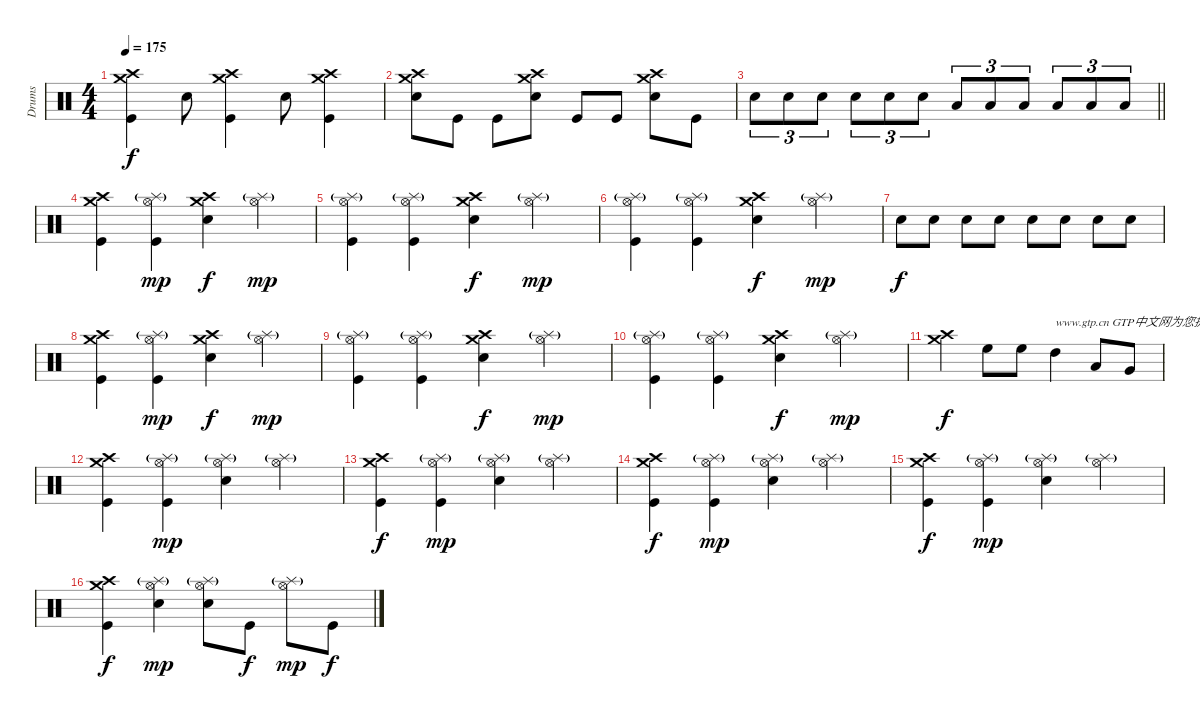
\track ("Drums" "Drums") {instrument percussion}
\staff {score}
\articulation defaults
\ts (4 4)
\tempo 175
\clef neutral
\ks c
("Crash medium (hit)" "Crash high (hit)" "Kick (hit)").4{dy f} "Electric Snare (hit)".8 ("Crash medium (hit)" "Crash high (hit)" "Kick (hit)").4 "Electric Snare (hit)".8 ("Crash medium (hit)" "Crash high (hit)" "Kick (hit)").4 |
("Crash medium (hit)" "Crash high (hit)" "Electric Snare (hit)").8 "Kick (hit)".8 "Kick (hit)".8 ("Crash medium (hit)" "Crash high (hit)" "Electric Snare (hit)").8 "Kick (hit)".8 "Kick (hit)".8 ("Crash medium (hit)" "Crash high (hit)" "Electric Snare (hit)").8 "Kick (hit)".8 |
\barLineRight lightlight "Electric Snare (hit)".8{tu (3 2)} "Electric Snare (hit)".8{tu (3 2)} "Electric Snare (hit)".8{tu (3 2)} "Electric Snare (hit)".8{tu (3 2)} "Electric Snare (hit)".8{tu (3 2)} "Electric Snare (hit)".8{tu (3 2)} "Low Tom (hit)".8{tu (3 2)} "Low Tom (hit)".8{tu (3 2)} "Low Tom (hit)".8{tu (3 2)} "Low Floor Tom (hit)".8{tu (3 2)} "Low Floor Tom (hit)".8{tu (3 2)} "Low Floor Tom (hit)".8{tu (3 2)}
|
("Crash medium (hit)" "Crash high (hit)" "Kick (hit)").4 ("Splash (hit)"{g} "Hi-Hat (open)" "Kick (hit)").4{dy mp} ("Crash medium (hit)" "Crash high (hit)" "Electric Snare (hit)").4{dy f} ("Splash (hit)"{g} "Hi-Hat (open)").4{dy mp} |
("Splash (hit)"{g} "Hi-Hat (open)" "Kick (hit)").4 ("Splash (hit)"{g} "Hi-Hat (open)" "Kick (hit)").4 ("Crash medium (hit)" "Crash high (hit)" "Electric Snare (hit)").4{dy f} ("Splash (hit)"{g} "Hi-Hat (open)").4{dy mp} |
("Splash (hit)"{g} "Hi-Hat (open)" "Kick (hit)").4 ("Splash (hit)"{g} "Hi-Hat (open)" "Kick (hit)").4 ("Crash medium (hit)" "Crash high (hit)" "Electric Snare (hit)").4{dy f} ("Splash (hit)"{g} "Hi-Hat (open)").4{dy mp} |
"Electric Snare (hit)".8{dy f} "Electric Snare (hit)".8 "Electric Snare (hit)".8 "Electric Snare (hit)".8 "Electric Snare (hit)".8 "Electric Snare (hit)".8 "Electric Snare (hit)".8 "Electric Snare (hit)".8 |
("Crash medium (hit)" "Crash high (hit)" "Kick (hit)").4 ("Splash (hit)"{g} "Hi-Hat (open)" "Kick (hit)").4{dy mp} ("Crash medium (hit)" "Crash high (hit)" "Electric Snare (hit)").4{dy f} ("Splash (hit)"{g} "Hi-Hat (open)").4{dy mp} |
("Splash (hit)"{g} "Hi-Hat (open)" "Kick (hit)").4 ("Splash (hit)"{g} "Hi-Hat (open)" "Kick (hit)").4 ("Crash medium (hit)" "Crash high (hit)" "Electric Snare (hit)").4{dy f} ("Splash (hit)"{g} "Hi-Hat (open)").4{dy mp} |
("Splash (hit)"{g} "Hi-Hat (open)" "Kick (hit)").4 ("Splash (hit)"{g} "Hi-Hat (open)" "Kick (hit)").4 ("Crash medium (hit)" "Crash high (hit)" "Electric Snare (hit)").4{dy f} ("Splash (hit)"{g} "Hi-Hat (open)").4{dy mp} |
("Crash medium (hit)" "Crash high (hit)").4{dy f} "High Floor Tom (hit)".8 "High Floor Tom (hit)".8 "High Tom (hit)".4{txt "www.gtp.cn GTP中文网为您提供优秀的谱子"} "Low Tom (hit)".8 "Very Low Tom (hit)".8 |
("Crash medium (hit)" "Crash high (hit)" "Kick (hit)").4 ("Splash (hit)"{g} "Hi-Hat (open)" "Kick (hit)").4{dy mp} ("Splash (hit)"{g} "Hi-Hat (open)" "Electric Snare (hit)").4 ("Splash (hit)"{g} "Hi-Hat (open)").4 |
("Crash medium (hit)" "Crash high (hit)" "Kick (hit)").4{dy f} ("Splash (hit)"{g} "Hi-Hat (open)" "Kick (hit)").4{dy mp} ("Splash (hit)"{g} "Hi-Hat (open)" "Electric Snare (hit)").4 ("Splash (hit)"{g} "Hi-Hat (open)").4 |
("Crash medium (hit)" "Crash high (hit)" "Kick (hit)").4{dy f} ("Splash (hit)"{g} "Hi-Hat (open)" "Kick (hit)").4{dy mp} ("Splash (hit)"{g} "Hi-Hat (open)" "Electric Snare (hit)").4 ("Splash (hit)"{g} "Hi-Hat (open)").4 |
("Crash medium (hit)" "Crash high (hit)" "Kick (hit)").4{dy f} ("Splash (hit)"{g} "Hi-Hat (open)" "Kick (hit)").4{dy mp} ("Splash (hit)"{g} "Hi-Hat (open)" "Electric Snare (hit)").4 ("Splash (hit)"{g} "Hi-Hat (open)").4 |
("Crash medium (hit)" "Crash high (hit)" "Kick (hit)").4{dy f} ("Splash (hit)"{g} "Hi-Hat (open)" "Electric Snare (hit)").4{dy mp} ("Splash (hit)"{g} "Hi-Hat (open)" "Electric Snare (hit)").8 "Kick (hit)".8{dy f} ("Splash (hit)"{g} "Hi-Hat (open)").8{dy mp} "Kick (hit)".8{dy f}
